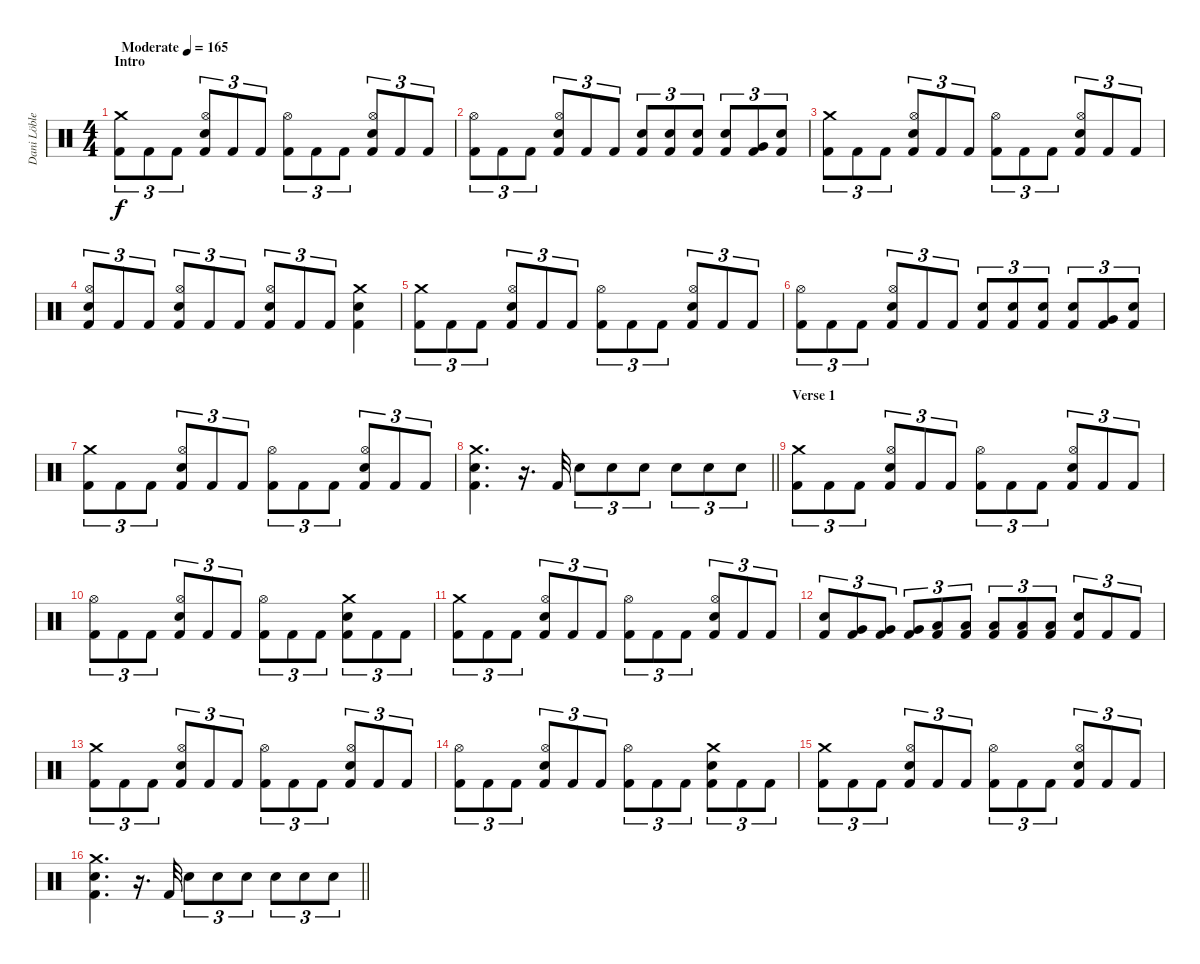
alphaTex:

\track ("Dani Löble" "Dani Löble") {instrument percussion}
\staff {score}
\articulation defaults
\ts (4 4)
\section ("" "Intro")
\tempo (165 "Moderate")
\clef neutral
\ks c
("Crash medium (hit)" "Kick (hit) 2").8{tu (3 2) dy f} "Kick (hit) 2".8{tu (3 2)} "Kick (hit) 2".8{tu (3 2)} ("Hi-Hat (open)" "Electric Snare (hit)" "Kick (hit) 2").8{tu (3 2)} "Kick (hit) 2".8{tu (3 2)} "Kick (hit) 2".8{tu (3 2)} ("Hi-Hat (open)" "Kick (hit) 2").8{tu (3 2)} "Kick (hit) 2".8{tu (3 2)} "Kick (hit) 2".8{tu (3 2)} ("Hi-Hat (open)" "Electric Snare (hit)" "Kick (hit) 2").8{tu (3 2)} "Kick (hit) 2".8{tu (3 2)} "Kick (hit) 2".8{tu (3 2)} |
("Hi-Hat (open)" "Kick (hit) 2").8{tu (3 2)} "Kick (hit) 2".8{tu (3 2)} "Kick (hit) 2".8{tu (3 2)} ("Hi-Hat (open)" "Electric Snare (hit)" "Kick (hit) 2").8{tu (3 2)} "Kick (hit) 2".8{tu (3 2)} "Kick (hit) 2".8{tu (3 2)} ("Electric Snare (hit)" "Kick (hit) 2").8{tu (3 2)} ("Electric Snare (hit)" "Kick (hit) 2").8{tu (3 2)} ("Electric Snare (hit)" "Kick (hit) 2").8{tu (3 2)} ("Electric Snare (hit)" "Kick (hit) 2").8{tu (3 2)} ("Very Low Tom (hit)" "Kick (hit) 2").8{tu (3 2)} ("Electric Snare (hit)" "Kick (hit) 2").8{tu (3 2)} |
("Crash medium (hit)" "Kick (hit) 2").8{tu (3 2)} "Kick (hit) 2".8{tu (3 2)} "Kick (hit) 2".8{tu (3 2)} ("Hi-Hat (open)" "Electric Snare (hit)" "Kick (hit) 2").8{tu (3 2)} "Kick (hit) 2".8{tu (3 2)} "Kick (hit) 2".8{tu (3 2)} ("Hi-Hat (open)" "Kick (hit) 2").8{tu (3 2)} "Kick (hit) 2".8{tu (3 2)} "Kick (hit) 2".8{tu (3 2)} ("Hi-Hat (open)" "Electric Snare (hit)" "Kick (hit) 2").8{tu (3 2)} "Kick (hit) 2".8{tu (3 2)} "Kick (hit) 2".8{tu (3 2)} |
("Hi-Hat (open)" "Electric Snare (hit)" "Kick (hit) 2").8{tu (3 2)} "Kick (hit) 2".8{tu (3 2)} "Kick (hit) 2".8{tu (3 2)} ("Hi-Hat (open)" "Electric Snare (hit)" "Kick (hit) 2").8{tu (3 2)} "Kick (hit) 2".8{tu (3 2)} "Kick (hit) 2".8{tu (3 2)} ("Hi-Hat (open)" "Electric Snare (hit)" "Kick (hit) 2").8{tu (3 2)} "Kick (hit) 2".8{tu (3 2)} "Kick (hit) 2".8{tu (3 2)} ("Crash medium (hit)" "Electric Snare (hit)" "Kick (hit) 2").4 |
("Crash medium (hit)" "Kick (hit) 2").8{tu (3 2)} "Kick (hit) 2".8{tu (3 2)} "Kick (hit) 2".8{tu (3 2)} ("Hi-Hat (open)" "Electric Snare (hit)" "Kick (hit) 2").8{tu (3 2)} "Kick (hit) 2".8{tu (3 2)} "Kick (hit) 2".8{tu (3 2)} ("Hi-Hat (open)" "Kick (hit) 2").8{tu (3 2)} "Kick (hit) 2".8{tu (3 2)} "Kick (hit) 2".8{tu (3 2)} ("Hi-Hat (open)" "Electric Snare (hit)" "Kick (hit) 2").8{tu (3 2)} "Kick (hit) 2".8{tu (3 2)} "Kick (hit) 2".8{tu (3 2)} |
("Hi-Hat (open)" "Kick (hit) 2").8{tu (3 2)} "Kick (hit) 2".8{tu (3 2)} "Kick (hit) 2".8{tu (3 2)} ("Hi-Hat (open)" "Electric Snare (hit)" "Kick (hit) 2").8{tu (3 2)} "Kick (hit) 2".8{tu (3 2)} "Kick (hit) 2".8{tu (3 2)} ("Electric Snare (hit)" "Kick (hit) 2").8{tu (3 2)} ("Electric Snare (hit)" "Kick (hit) 2").8{tu (3 2)} ("Electric Snare (hit)" "Kick (hit) 2").8{tu (3 2)} ("Electric Snare (hit)" "Kick (hit) 2").8{tu (3 2)} ("Very Low Tom (hit)" "Kick (hit) 2").8{tu (3 2)} ("Electric Snare (hit)" "Kick (hit) 2").8{tu (3 2)} |
("Crash medium (hit)" "Kick (hit) 2").8{tu (3 2)} "Kick (hit) 2".8{tu (3 2)} "Kick (hit) 2".8{tu (3 2)} ("Hi-Hat (open)" "Electric Snare (hit)" "Kick (hit) 2").8{tu (3 2)} "Kick (hit) 2".8{tu (3 2)} "Kick (hit) 2".8{tu (3 2)} ("Hi-Hat (open)" "Kick (hit) 2").8{tu (3 2)} "Kick (hit) 2".8{tu (3 2)} "Kick (hit) 2".8{tu (3 2)} ("Hi-Hat (open)" "Electric Snare (hit)" "Kick (hit) 2").8{tu (3 2)} "Kick (hit) 2".8{tu (3 2)} "Kick (hit) 2".8{tu (3 2)} |
\barLineRight lightlight
("Crash medium (hit)" "Electric Snare (hit)" "Kick (hit) 2").4{d} r.16{d} "Kick (hit) 2".32 "Electric Snare (hit)".8{tu (3 2)} "Electric Snare (hit)".8{tu (3 2)} "Electric Snare (hit)".8{tu (3 2)} "Electric Snare (hit)".8{tu (3 2)} "Electric Snare (hit)".8{tu (3 2)} "Electric Snare (hit)".8{tu (3 2)} |
\section ("" "Verse 1")
("Crash medium (hit)" "Kick (hit) 2").8{tu (3 2)} "Kick (hit) 2".8{tu (3 2)} "Kick (hit) 2".8{tu (3 2)} ("Hi-Hat (open)" "Electric Snare (hit)" "Kick (hit) 2").8{tu (3 2)} "Kick (hit) 2".8{tu (3 2)} "Kick (hit) 2".8{tu (3 2)} ("Hi-Hat (open)" "Kick (hit) 2").8{tu (3 2)} "Kick (hit) 2".8{tu (3 2)} "Kick (hit) 2".8{tu (3 2)} ("Hi-Hat (open)" "Electric Snare (hit)" "Kick (hit) 2").8{tu (3 2)} "Kick (hit) 2".8{tu (3 2)} "Kick (hit) 2".8{tu (3 2)} |
("Hi-Hat (open)" "Kick (hit) 2").8{tu (3 2)} "Kick (hit) 2".8{tu (3 2)} "Kick (hit) 2".8{tu (3 2)} ("Hi-Hat (open)" "Electric Snare (hit)" "Kick (hit) 2").8{tu (3 2)} "Kick (hit) 2".8{tu (3 2)} "Kick (hit) 2".8{tu (3 2)} ("Hi-Hat (open)" "Kick (hit) 2").8{tu (3 2)} "Kick (hit) 2".8{tu (3 2)} "Kick (hit) 2".8{tu (3 2)} ("Crash medium (hit)" "Electric Snare (hit)" "Kick (hit) 2").8{tu (3 2)} "Kick (hit) 2".8{tu (3 2)} "Kick (hit) 2".8{tu (3 2)} |
("Crash medium (hit)" "Kick (hit) 2").8{tu (3 2)} "Kick (hit) 2".8{tu (3 2)} "Kick (hit) 2".8{tu (3 2)} ("Hi-Hat (open)" "Electric Snare (hit)" "Kick (hit) 2").8{tu (3 2)} "Kick (hit) 2".8{tu (3 2)} "Kick (hit) 2".8{tu (3 2)} ("Hi-Hat (open)" "Kick (hit) 2").8{tu (3 2)} "Kick (hit) 2".8{tu (3 2)} "Kick (hit) 2".8{tu (3 2)} ("Hi-Hat (open)" "Electric Snare (hit)" "Kick (hit) 2").8{tu (3 2)} "Kick (hit) 2".8{tu (3 2)} "Kick (hit) 2".8{tu (3 2)} |
("Electric Snare (hit)" "Kick (hit) 2").8{tu (3 2)} ("Very Low Tom (hit)" "Kick (hit) 2").8{tu (3 2)} ("Very Low Tom (hit)" "Kick (hit) 2").8{tu (3 2)} ("Very Low Tom (hit)" "Kick (hit) 2").8{tu (3 2)} ("Low Floor Tom (hit)" "Kick (hit) 2").8{tu (3 2)} ("Low Floor Tom (hit)" "Kick (hit) 2").8{tu (3 2)} ("Low Floor Tom (hit)" "Kick (hit) 2").8{tu (3 2)} ("Low Floor Tom (hit)" "Kick (hit) 2").8{tu (3 2)} ("Low Floor Tom (hit)" "Kick (hit) 2").8{tu (3 2)} ("Electric Snare (hit)" "Kick (hit) 2").8{tu (3 2)} "Kick (hit) 2".8{tu (3 2)} "Kick (hit) 2".8{tu (3 2)} |
("Crash medium (hit)" "Kick (hit) 2").8{tu (3 2)} "Kick (hit) 2".8{tu (3 2)} "Kick (hit) 2".8{tu (3 2)} ("Hi-Hat (open)" "Electric Snare (hit)" "Kick (hit) 2").8{tu (3 2)} "Kick (hit) 2".8{tu (3 2)} "Kick (hit) 2".8{tu (3 2)} ("Hi-Hat (open)" "Kick (hit) 2").8{tu (3 2)} "Kick (hit) 2".8{tu (3 2)} "Kick (hit) 2".8{tu (3 2)} ("Hi-Hat (open)" "Electric Snare (hit)" "Kick (hit) 2").8{tu (3 2)} "Kick (hit) 2".8{tu (3 2)} "Kick (hit) 2".8{tu (3 2)} |
("Hi-Hat (open)" "Kick (hit) 2").8{tu (3 2)} "Kick (hit) 2".8{tu (3 2)} "Kick (hit) 2".8{tu (3 2)} ("Hi-Hat (open)" "Electric Snare (hit)" "Kick (hit) 2").8{tu (3 2)} "Kick (hit) 2".8{tu (3 2)} "Kick (hit) 2".8{tu (3 2)} ("Hi-Hat (open)" "Kick (hit) 2").8{tu (3 2)} "Kick (hit) 2".8{tu (3 2)} "Kick (hit) 2".8{tu (3 2)} ("Crash medium (hit)" "Electric Snare (hit)" "Kick (hit) 2").8{tu (3 2)} "Kick (hit) 2".8{tu (3 2)} "Kick (hit) 2".8{tu (3 2)} |
("Crash medium (hit)" "Kick (hit) 2").8{tu (3 2)} "Kick (hit) 2".8{tu (3 2)} "Kick (hit) 2".8{tu (3 2)} ("Hi-Hat (open)" "Electric Snare (hit)" "Kick (hit) 2").8{tu (3 2)} "Kick (hit) 2".8{tu (3 2)} "Kick (hit) 2".8{tu (3 2)} ("Hi-Hat (open)" "Kick (hit) 2").8{tu (3 2)} "Kick (hit) 2".8{tu (3 2)} "Kick (hit) 2".8{tu (3 2)} ("Hi-Hat (open)" "Electric Snare (hit)" "Kick (hit) 2").8{tu (3 2)} "Kick (hit) 2".8{tu (3 2)} "Kick (hit) 2".8{tu (3 2)} |
\barLineRight lightlight
("Crash medium (hit)" "Electric Snare (hit)" "Kick (hit) 2").4{d} r.16{d} "Kick (hit) 2".32 "Electric Snare (hit)".8{tu (3 2)} "Electric Snare (hit)".8{tu (3 2)} "Electric Snare (hit)".8{tu (3 2)} "Electric Snare (hit)".8{tu (3 2)} "Electric Snare (hit)".8{tu (3 2)} "Electric Snare (hit)".8{tu (3 2)}
